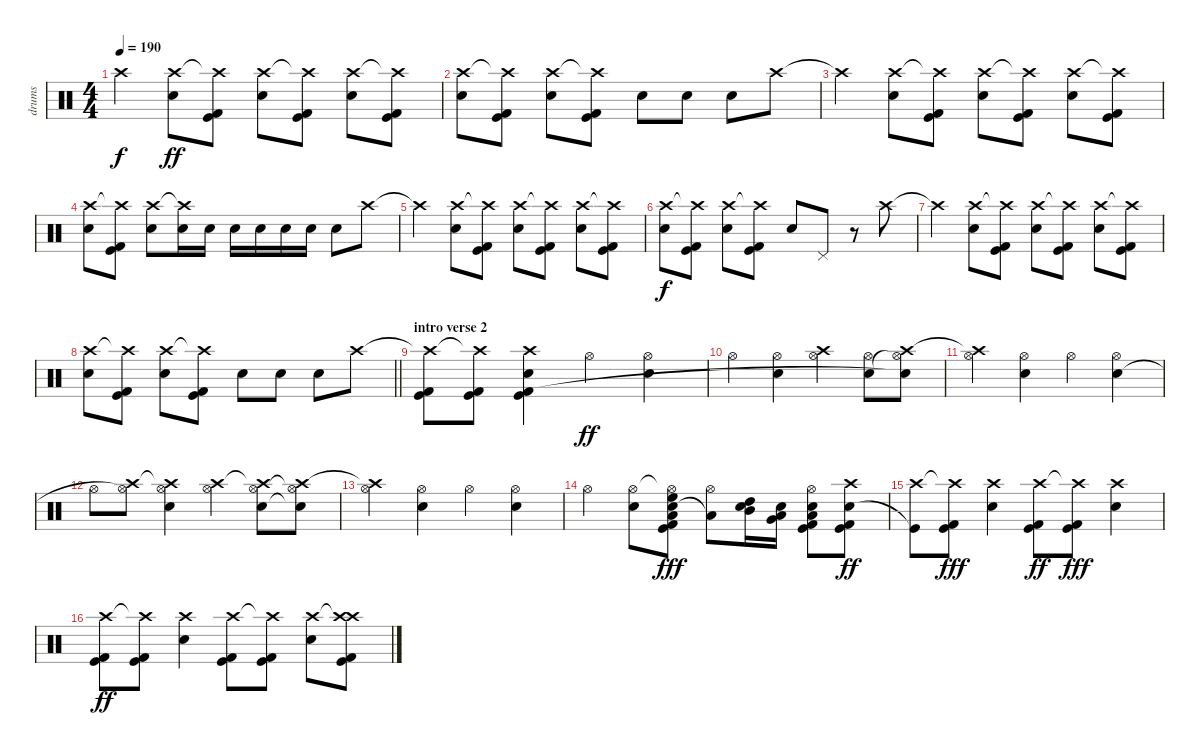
\track ("drums" "drums") {instrument percussion}
\staff {score}
\articulation defaults
\ts (4 4)
\tempo 190
\clef neutral
\ks c "Crash high (hit)"{t}.4{dy f}
("Crash high (hit)" "Electric Snare (hit)").8{dy ff} ("Crash high (hit)"{t} "Kick (hit) 2" "Kick (hit)").8 ("Crash high (hit)" "Electric Snare (hit)").8 ("Crash high (hit)"{t} "Kick (hit) 2" "Kick (hit)").8 ("Crash high (hit)" "Electric Snare (hit)").8 ("Crash high (hit)"{t} "Kick (hit) 2" "Kick (hit)").8 |
("Crash high (hit)" "Electric Snare (hit)").8 ("Crash high (hit)"{t} "Kick (hit) 2" "Kick (hit)").8 ("Crash high (hit)" "Electric Snare (hit)").8 ("Crash high (hit)"{t} "Kick (hit) 2" "Kick (hit)").8 "Electric Snare (hit)".8 "Electric Snare (hit)".8 "Electric Snare (hit)".8 "Crash high (hit)".8 |
"Crash high (hit)"{t}.4 ("Crash high (hit)" "Electric Snare (hit)").8 ("Crash high (hit)"{t} "Kick (hit) 2" "Kick (hit)").8 ("Crash high (hit)" "Electric Snare (hit)").8 ("Crash high (hit)"{t} "Kick (hit) 2" "Kick (hit)").8 ("Crash high (hit)" "Electric Snare (hit)").8 ("Crash high (hit)"{t} "Kick (hit) 2" "Kick (hit)").8 |
("Crash high (hit)" "Electric Snare (hit)").8 ("Crash high (hit)"{t} "Kick (hit) 2" "Kick (hit)").8 ("Crash high (hit)" "Electric Snare (hit)").8 ("Crash high (hit)"{t} "Electric Snare (hit)").16 "Electric Snare (hit)".16 "Electric Snare (hit)".16 "Electric Snare (hit)".16 "Electric Snare (hit)".16 "Electric Snare (hit)".16 "Electric Snare (hit)".8 "Crash high (hit)".8 |
"Crash high (hit)"{t}.4 ("Crash high (hit)" "Electric Snare (hit)").8 ("Crash high (hit)"{t} "Kick (hit) 2" "Kick (hit)").8 ("Crash high (hit)" "Electric Snare (hit)").8 ("Crash high (hit)"{t} "Kick (hit) 2" "Kick (hit)").8 ("Crash high (hit)" "Electric Snare (hit)").8 ("Crash high (hit)"{t} "Kick (hit) 2" "Kick (hit)").8 |
("Crash high (hit)" "Electric Snare (hit)").8{dy f} ("Crash high (hit)"{t} "Kick (hit) 2" "Kick (hit)").8 ("Crash high (hit)" "Electric Snare (hit)").8 ("Crash high (hit)"{t} "Kick (hit) 2" "Kick (hit)").8 "Electric Snare (hit)".8 "Pedal Hi-Hat (hit)".8 r.8 "Crash high (hit)".8 |
"Crash high (hit)"{t}.4 ("Crash high (hit)" "Electric Snare (hit)").8 ("Crash high (hit)"{t} "Kick (hit) 2" "Kick (hit)").8 ("Crash high (hit)" "Electric Snare (hit)").8 ("Crash high (hit)"{t} "Kick (hit) 2" "Kick (hit)").8 ("Crash high (hit)" "Electric Snare (hit)").8 ("Crash high (hit)"{t} "Kick (hit) 2" "Kick (hit)").8 |
\barLineRight lightlight
("Crash high (hit)" "Electric Snare (hit)").8 ("Crash high (hit)"{t} "Kick (hit) 2" "Kick (hit)").8 ("Crash high (hit)" "Electric Snare (hit)").8 ("Crash high (hit)"{t} "Kick (hit) 2" "Kick (hit)").8 "Electric Snare (hit)".8 "Electric Snare (hit)".8 "Electric Snare (hit)".8 "Crash high (hit)".8 |
\section ("" "intro verse 2")
("Crash high (hit)"{t} "Kick (hit) 2" "Kick (hit)").8 ("Crash high (hit)"{t} "Kick (hit) 2" "Kick (hit)").8 ("Crash high (hit)" "Electric Snare (hit)" "Kick (hit) 2" "Kick (hit)").4 "Hi-Hat (open)".4{dy ff} ("Hi-Hat (open)" "Electric Snare (hit)").4 |
"Hi-Hat (open)".4 ("Hi-Hat (open)" "Electric Snare (hit)").4 ("Crash high (hit)" "Hi-Hat (open)").4 ("Hi-Hat (open)" "Electric Snare (hit)").8 ("Crash high (hit)" "Hi-Hat (open)"{t} "Electric Snare (hit)"{t}).8 |
("Crash high (hit)"{t} "Hi-Hat (open)").4 ("Hi-Hat (open)" "Electric Snare (hit)").4 "Hi-Hat (open)".4 ("Hi-Hat (open)" "Electric Snare (hit)").4 |
"Hi-Hat (open)".8 ("Crash high (hit)" "Hi-Hat (open)"{t}).8 ("Crash high (hit)"{t} "Hi-Hat (open)" "Electric Snare (hit)").4 ("Crash high (hit)" "Hi-Hat (open)").4 ("Crash high (hit)"{t} "Hi-Hat (open)" "Electric Snare (hit)").8 ("Crash high (hit)" "Hi-Hat (open)"{t} "Electric Snare (hit)"{t}).8 |
("Crash high (hit)"{t} "Hi-Hat (open)").4 ("Hi-Hat (open)" "Electric Snare (hit)").4 "Hi-Hat (open)".4 ("Hi-Hat (open)" "Electric Snare (hit)").4 |
"Hi-Hat (open)".4 ("Hi-Hat (open)" "Electric Snare (hit)").8 ("Hi-Hat (open)"{t} "Electric Snare (hit)" "Kick (hit) 2" "High Floor Tom (hit)" "Low Tom (hit)" "Kick (hit)").8{dy fff} ("Hi-Hat (open)" "Low Tom (hit)"{t}).8 ("Electric Snare (hit)" "High Tom (hit)" "Mid Tom (hit)").16 ("Electric Snare (hit)" "Very Low Tom (hit)" "Low Floor Tom (hit)").16 ("Electric Snare (hit)" "Hi-Hat (open)" "Kick (hit) 2" "Low Floor Tom (hit)" "Kick (hit)").8 ("Crash high (hit)" "Electric Snare (hit)" "Kick (hit) 2" "Kick (hit)").8{dy ff} |
("Crash high (hit)" "Kick (hit)"{t}).8 ("Crash high (hit)"{t} "Kick (hit) 2" "Kick (hit)").8{dy fff} ("Crash high (hit)" "Electric Snare (hit)").4 ("Crash high (hit)" "Kick (hit) 2" "Kick (hit)").8{dy ff} ("Crash high (hit)"{t} "Kick (hit) 2" "Kick (hit)").8{dy fff} ("Crash high (hit)" "Electric Snare (hit)").4 |
("Crash high (hit)" "Kick (hit) 2" "Kick (hit)").8{dy ff} ("Crash high (hit)"{t} "Kick (hit) 2" "Kick (hit)").8 ("Crash high (hit)" "Electric Snare (hit)").4 ("Crash high (hit)" "Kick (hit) 2" "Kick (hit)").8 ("Crash high (hit)"{t} "Kick (hit) 2" "Kick (hit)").8 ("Crash high (hit)" "Electric Snare (hit)").8 ("Crash high (hit)"{t} "Crash high (hit)" "Kick (hit) 2" "Kick (hit)").8
